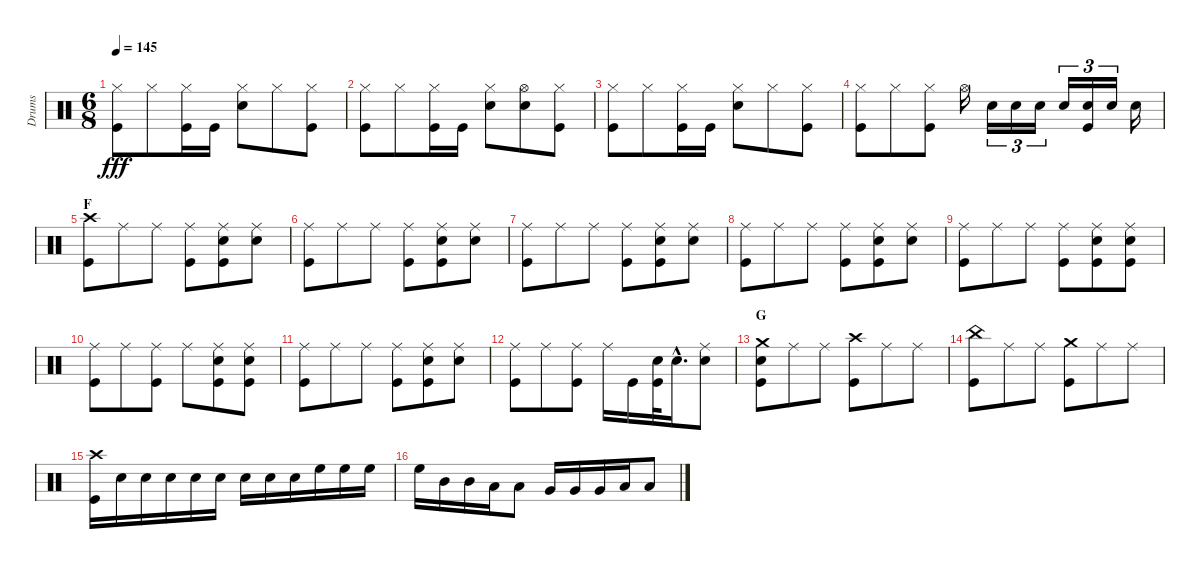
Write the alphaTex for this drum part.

\track ("Drums" "Drums") {instrument percussion}
\staff {score}
\articulation defaults
\ts (6 8)
\tempo 145
\clef neutral
\ks c
("Hi-Hat (closed)" "Kick (hit)").8{dy fff} "Hi-Hat (closed)".8 ("Hi-Hat (closed)" "Kick (hit)").16 "Kick (hit)".16 ("Hi-Hat (closed)" "Snare (hit) 2").8 "Hi-Hat (closed)".8 ("Hi-Hat (closed)" "Kick (hit)").8 |
("Hi-Hat (closed)" "Kick (hit)").8 "Hi-Hat (closed)".8 ("Hi-Hat (closed)" "Kick (hit)").16 "Kick (hit)".16 ("Hi-Hat (closed)" "Snare (hit) 2").8 ("Hi-Hat (open)" "Snare (hit) 2").8 ("Hi-Hat (closed)" "Kick (hit)").8 |
("Hi-Hat (closed)" "Kick (hit)").8 "Hi-Hat (closed)".8 ("Hi-Hat (closed)" "Kick (hit)").16 "Kick (hit)".16 ("Hi-Hat (closed)" "Snare (hit) 2").8 "Hi-Hat (closed)".8 ("Hi-Hat (closed)" "Kick (hit)").8 |
("Hi-Hat (closed)" "Kick (hit)").8 "Hi-Hat (closed)".8 ("Hi-Hat (closed)" "Kick (hit)").8 "Hi-Hat (open)".16 "Snare (hit) 2".16{tu (3 2)} "Snare (hit) 2".16{tu (3 2)} "Snare (hit) 2".16{tu (3 2)} "Snare (hit) 2".16{tu (3 2)} ("Snare (hit) 2" "Kick (hit)").16{tu (3 2)} "Snare (hit) 2".16{tu (3 2)} "Snare (hit) 2".16 |
\section ("" "F")
("Crash high (hit)" "Kick (hit)").8 "Ride (middle)".8 "Ride (middle)".8 ("Ride (middle)" "Kick (hit)").8 ("Ride (middle)" "Snare (hit) 2" "Kick (hit)").8 ("Ride (middle)" "Snare (hit) 2").8 |
("Ride (middle)" "Kick (hit)").8 "Ride (middle)".8 "Ride (middle)".8 ("Ride (middle)" "Kick (hit)").8 ("Ride (middle)" "Snare (hit) 2" "Kick (hit)").8 ("Ride (middle)" "Snare (hit) 2").8 |
("Ride (middle)" "Kick (hit)").8 "Ride (middle)".8 "Ride (middle)".8 ("Ride (middle)" "Kick (hit)").8 ("Ride (middle)" "Snare (hit) 2" "Kick (hit)").8 ("Ride (middle)" "Snare (hit) 2").8 |
("Ride (middle)" "Kick (hit)").8 "Ride (middle)".8 "Ride (middle)".8 ("Ride (middle)" "Kick (hit)").8 ("Ride (middle)" "Snare (hit) 2" "Kick (hit)").8 ("Ride (middle)" "Snare (hit) 2").8 |
("Ride (middle)" "Kick (hit)").8 "Ride (middle)".8 "Ride (middle)".8 ("Ride (middle)" "Kick (hit)").8 ("Ride (middle)" "Snare (hit) 2" "Kick (hit)").8 ("Ride (middle)" "Snare (hit) 2" "Kick (hit)").8 |
("Ride (middle)" "Kick (hit)").8 "Ride (middle)".8 ("Ride (middle)" "Kick (hit)").8 "Ride (middle)".8 ("Ride (middle)" "Snare (hit) 2" "Kick (hit)").8 ("Ride (middle)" "Snare (hit) 2" "Kick (hit)").8 |
("Ride (middle)" "Kick (hit)").8 "Ride (middle)".8 "Ride (middle)".8 ("Ride (middle)" "Kick (hit)").8 ("Ride (middle)" "Snare (hit) 2" "Kick (hit)").8 ("Ride (middle)" "Snare (hit) 2").8 |
("Ride (middle)" "Kick (hit)").8 "Ride (middle)".8 ("Ride (middle)" "Kick (hit)").8 "Ride (middle)".16 "Kick (hit)".16 ("Snare (hit) 2" "Kick (hit)").32 "Snare (hit) 2"{hac}.16{d} ("Ride (middle)" "Snare (hit) 2").8 |
\section ("" "G")
("Crash medium (hit)" "Snare (hit) 2" "Kick (hit)").8 "Ride (middle)".8 "Ride (middle)".8 ("Crash high (hit)" "Kick (hit)").8 "Ride (middle)".8 "Ride (middle)".8 |
("China (hit)" "Kick (hit)").8 "Ride (middle)".8 "Ride (middle)".8 ("Crash medium (hit)" "Kick (hit)").8 "Ride (middle)".8 "Ride (middle)".8 |
("Crash high (hit)" "Kick (hit)").16 "Snare (hit) 2".16 "Snare (hit) 2".16 "Snare (hit) 2".16 "Snare (hit) 2".16 "Snare (hit) 2".16 "Snare (hit) 2".16 "Snare (hit) 2".16 "Snare (hit) 2".16 "High Floor Tom (hit)".16 "High Floor Tom (hit)".16 "High Floor Tom (hit)".16 |
"High Floor Tom (hit)".16 "Mid Tom (hit)".16 "Mid Tom (hit)".16 "Low Tom (hit)".16 "Low Tom (hit)".8 "Very Low Tom (hit)".16 "Very Low Tom (hit)".16 "Very Low Tom (hit)".16 "Low Floor Tom (hit)".16 "Low Floor Tom (hit)".8
